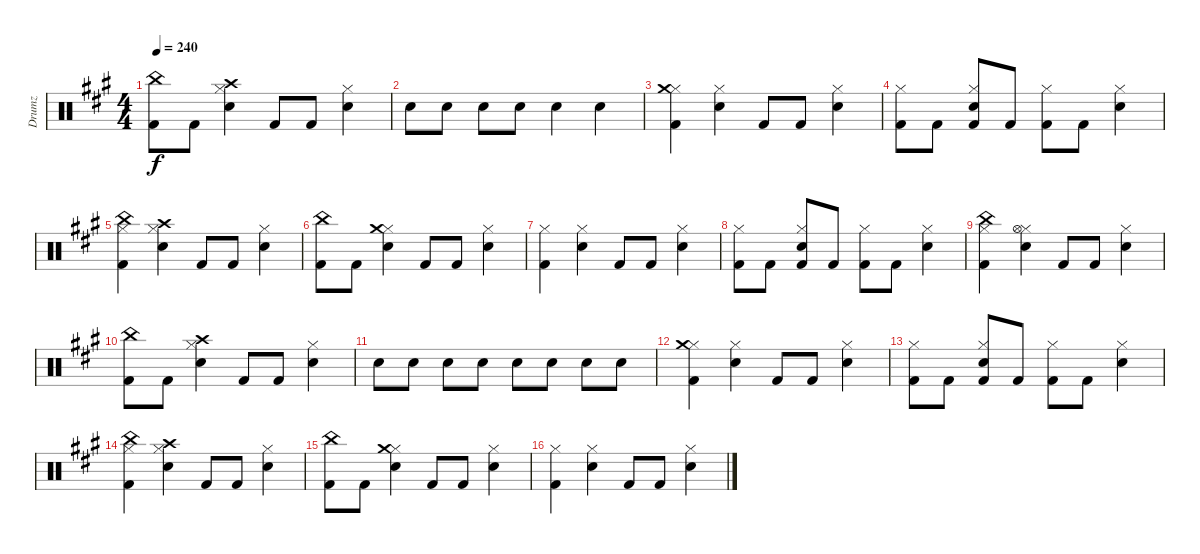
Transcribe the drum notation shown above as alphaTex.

\track ("Drumz" "Drumz") {instrument percussion}
\staff {score}
\articulation defaults
\ts (4 4)
\tempo 240
\clef neutral
\ks a
("Kick (hit) 2" "China (hit)").8{dy f} "Kick (hit) 2".8 ("Hi-Hat (closed)" "Electric Snare (hit)" "Crash high (hit)").4 "Kick (hit) 2".8 "Kick (hit) 2".8 ("Electric Snare (hit)" "Hi-Hat (closed)").4 |
"Electric Snare (hit)".8 "Electric Snare (hit)".8 "Electric Snare (hit)".8 "Electric Snare (hit)".8 "Electric Snare (hit)".4 "Electric Snare (hit)".4 |
("Hi-Hat (closed)" "Crash medium (hit)" "Kick (hit) 2").4 ("Hi-Hat (closed)" "Electric Snare (hit)").4 "Kick (hit) 2".8 "Kick (hit) 2".8 ("Electric Snare (hit)" "Hi-Hat (closed)").4 |
("Hi-Hat (closed)" "Kick (hit) 2").8 "Kick (hit) 2".8 ("Hi-Hat (closed)" "Electric Snare (hit)" "Kick (hit) 2").8 "Kick (hit) 2".8 ("Hi-Hat (closed)" "Kick (hit) 2").8 "Kick (hit) 2".8 ("Hi-Hat (closed)" "Electric Snare (hit)").4 |
("Hi-Hat (closed)" "China (hit)" "Kick (hit) 2").4 ("Hi-Hat (closed)" "Crash high (hit)" "Electric Snare (hit)").4 "Kick (hit) 2".8 "Kick (hit) 2".8 ("Electric Snare (hit)" "Hi-Hat (closed)").4 |
("Kick (hit) 2" "China (hit)").8 "Kick (hit) 2".8 ("Hi-Hat (closed)" "Electric Snare (hit)" "Crash medium (hit)").4 "Kick (hit) 2".8 "Kick (hit) 2".8 ("Electric Snare (hit)" "Hi-Hat (closed)").4 |
("Hi-Hat (closed)" "Kick (hit) 2").4 ("Hi-Hat (closed)" "Electric Snare (hit)").4 "Kick (hit) 2".8 "Kick (hit) 2".8 ("Electric Snare (hit)" "Hi-Hat (closed)").4 |
("Hi-Hat (closed)" "Kick (hit) 2").8 "Kick (hit) 2".8 ("Hi-Hat (closed)" "Electric Snare (hit)" "Kick (hit) 2").8 "Kick (hit) 2".8 ("Hi-Hat (closed)" "Kick (hit) 2").8 "Kick (hit) 2".8 ("Hi-Hat (closed)" "Electric Snare (hit)").4 |
("Hi-Hat (closed)" "China (hit)" "Kick (hit) 2").4 ("Hi-Hat (closed)" "Hi-Hat (open)" "Electric Snare (hit)").4 "Kick (hit) 2".8 "Kick (hit) 2".8 ("Electric Snare (hit)" "Hi-Hat (closed)").4 |
("Kick (hit) 2" "China (hit)").8 "Kick (hit) 2".8 ("Hi-Hat (closed)" "Electric Snare (hit)" "Crash high (hit)").4 "Kick (hit) 2".8 "Kick (hit) 2".8 ("Electric Snare (hit)" "Hi-Hat (closed)").4 |
"Electric Snare (hit)".8 "Electric Snare (hit)".8 "Electric Snare (hit)".8 "Electric Snare (hit)".8 "Electric Snare (hit)".8 "Electric Snare (hit)".8 "Electric Snare (hit)".8 "Electric Snare (hit)".8 |
("Hi-Hat (closed)" "Crash medium (hit)" "Kick (hit) 2").4 ("Hi-Hat (closed)" "Electric Snare (hit)").4 "Kick (hit) 2".8 "Kick (hit) 2".8 ("Electric Snare (hit)" "Hi-Hat (closed)").4 |
("Hi-Hat (closed)" "Kick (hit) 2").8 "Kick (hit) 2".8 ("Hi-Hat (closed)" "Electric Snare (hit)" "Kick (hit) 2").8 "Kick (hit) 2".8 ("Hi-Hat (closed)" "Kick (hit) 2").8 "Kick (hit) 2".8 ("Hi-Hat (closed)" "Electric Snare (hit)").4 |
("Hi-Hat (closed)" "China (hit)" "Kick (hit) 2").4 ("Hi-Hat (closed)" "Crash high (hit)" "Electric Snare (hit)").4 "Kick (hit) 2".8 "Kick (hit) 2".8 ("Electric Snare (hit)" "Hi-Hat (closed)").4 |
("Kick (hit) 2" "China (hit)").8 "Kick (hit) 2".8 ("Hi-Hat (closed)" "Electric Snare (hit)" "Crash medium (hit)").4 "Kick (hit) 2".8 "Kick (hit) 2".8 ("Electric Snare (hit)" "Hi-Hat (closed)").4 |
("Hi-Hat (closed)" "Kick (hit) 2").4 ("Hi-Hat (closed)" "Electric Snare (hit)").4 "Kick (hit) 2".8 "Kick (hit) 2".8 ("Electric Snare (hit)" "Hi-Hat (closed)").4
